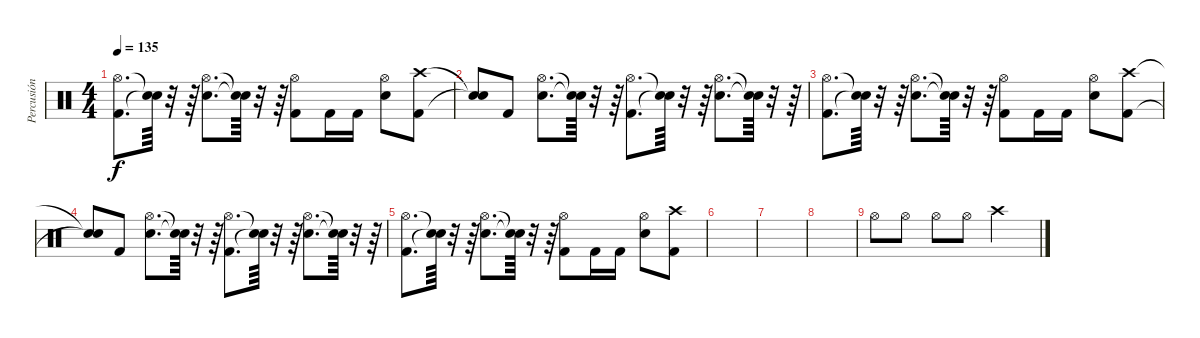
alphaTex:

\track ("Percusión" "Percusión") {instrument percussion}
\staff {score}
\articulation defaults
\ts (4 4)
\tempo 135
\clef neutral
\ks c
("Kick (hit) 2" "Hi-Hat (open)").8{d dy f} ("Snare (hit)"{t} "Snare (hit)"{t}).64 r.32 r.64 ("Snare (hit) 2" "Hi-Hat (open)").8{d} ("Snare (hit)"{t} "Snare (hit)"{t}).64 r.32 r.64 ("Kick (hit) 2" "Hi-Hat (open)").8 "Kick (hit) 2".16 "Kick (hit) 2".16 ("Snare (hit) 2" "Hi-Hat (open)").8 ("Kick (hit) 2" "Crash high (hit)").8 |
("Snare (hit)"{t} "Snare (hit)"{t}).8 "Kick (hit) 2".8 ("Snare (hit) 2" "Hi-Hat (open)").8{d} ("Snare (hit)"{t} "Snare (hit)"{t}).64 r.32 r.64 ("Kick (hit) 2" "Hi-Hat (open)").8{d} ("Snare (hit)"{t} "Snare (hit)"{t}).64 r.32 r.64 ("Snare (hit) 2" "Hi-Hat (open)").8{d} ("Snare (hit)"{t} "Snare (hit)"{t}).64 r.32 r.64 |
("Kick (hit) 2" "Hi-Hat (open)").8{d} ("Snare (hit)"{t} "Snare (hit)"{t}).64 r.32 r.64 ("Snare (hit) 2" "Hi-Hat (open)").8{d} ("Snare (hit)"{t} "Snare (hit)"{t}).64 r.32 r.64 ("Kick (hit) 2" "Hi-Hat (open)").8 "Kick (hit) 2".16 "Kick (hit) 2".16 ("Snare (hit) 2" "Hi-Hat (open)").8 ("Kick (hit) 2" "Crash high (hit)").8 |
("Snare (hit)"{t} "Snare (hit)"{t}).8 "Kick (hit) 2".8 ("Snare (hit) 2" "Hi-Hat (open)").8{d} ("Snare (hit)"{t} "Snare (hit)"{t}).64 r.32 r.64 ("Kick (hit) 2" "Hi-Hat (open)").8{d} ("Snare (hit)"{t} "Snare (hit)"{t}).64 r.32 r.64 ("Snare (hit) 2" "Hi-Hat (open)").8{d} ("Snare (hit)"{t} "Snare (hit)"{t}).64 r.32 r.64 |
("Kick (hit) 2" "Hi-Hat (open)").8{d} ("Snare (hit)"{t} "Snare (hit)"{t}).64 r.32 r.64 ("Snare (hit) 2" "Hi-Hat (open)").8{d} ("Snare (hit)"{t} "Snare (hit)"{t}).64 r.32 r.64 ("Kick (hit) 2" "Hi-Hat (open)").8 "Kick (hit) 2".16 "Kick (hit) 2".16 ("Snare (hit) 2" "Hi-Hat (open)").8 ("Kick (hit) 2" "Crash high (hit)").8 |
|
|
|
"Hi-Hat (open)".8 "Hi-Hat (open)".8 "Hi-Hat (open)".8 "Hi-Hat (open)".8 "Crash high (hit)".2
